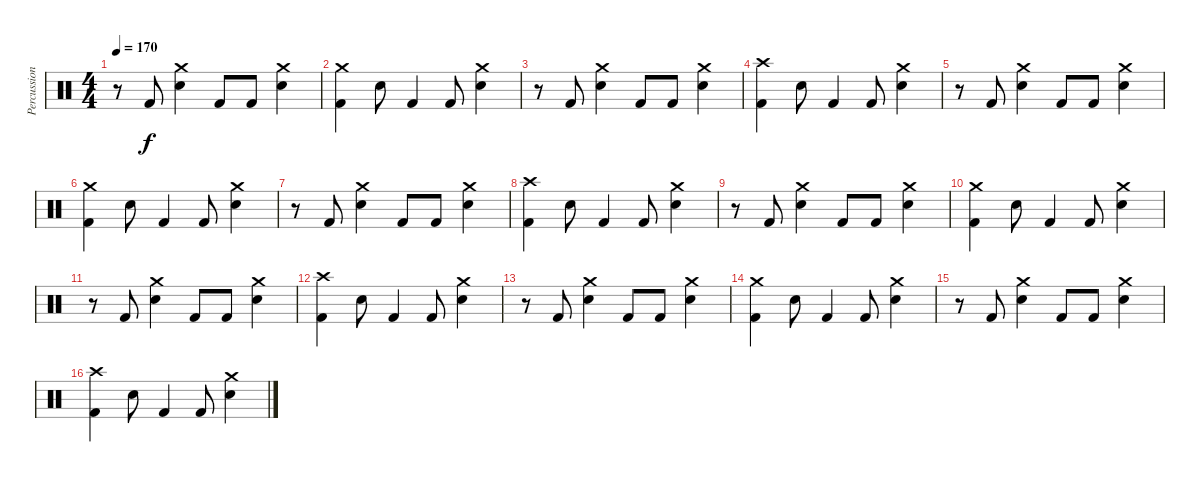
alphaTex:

\track ("Percussion" "Percussion") {instrument percussion}
\staff {score}
\articulation defaults
\ts (4 4)
\tempo 170
\clef neutral
\ks c
r.8{dy f} "Kick (hit) 2".8 ("Snare (hit) 2" "Crash medium (hit)").4 "Kick (hit) 2".8 "Kick (hit) 2".8 ("Snare (hit) 2" "Crash medium (hit)").4 |
("Crash medium (hit)" "Kick (hit) 2").4 "Snare (hit) 2".8 "Kick (hit) 2".4 "Kick (hit) 2".8 ("Snare (hit) 2" "Crash medium (hit)").4 |
r.8 "Kick (hit) 2".8 ("Snare (hit) 2" "Crash medium (hit)").4 "Kick (hit) 2".8 "Kick (hit) 2".8 ("Snare (hit) 2" "Crash medium (hit)").4 |
("Crash high (hit)" "Kick (hit) 2").4 "Snare (hit) 2".8 "Kick (hit) 2".4 "Kick (hit) 2".8 ("Snare (hit) 2" "Crash medium (hit)").4 |
r.8 "Kick (hit) 2".8 ("Snare (hit) 2" "Crash medium (hit)").4 "Kick (hit) 2".8 "Kick (hit) 2".8 ("Snare (hit) 2" "Crash medium (hit)").4 |
("Crash medium (hit)" "Kick (hit) 2").4 "Snare (hit) 2".8 "Kick (hit) 2".4 "Kick (hit) 2".8 ("Snare (hit) 2" "Crash medium (hit)").4 |
r.8 "Kick (hit) 2".8 ("Snare (hit) 2" "Crash medium (hit)").4 "Kick (hit) 2".8 "Kick (hit) 2".8 ("Snare (hit) 2" "Crash medium (hit)").4 |
("Crash high (hit)" "Kick (hit) 2").4 "Snare (hit) 2".8 "Kick (hit) 2".4 "Kick (hit) 2".8 ("Snare (hit) 2" "Crash medium (hit)").4 |
r.8 "Kick (hit) 2".8 ("Snare (hit) 2" "Crash medium (hit)").4 "Kick (hit) 2".8 "Kick (hit) 2".8 ("Snare (hit) 2" "Crash medium (hit)").4 |
("Crash medium (hit)" "Kick (hit) 2").4 "Snare (hit) 2".8 "Kick (hit) 2".4 "Kick (hit) 2".8 ("Snare (hit) 2" "Crash medium (hit)").4 |
r.8 "Kick (hit) 2".8 ("Snare (hit) 2" "Crash medium (hit)").4 "Kick (hit) 2".8 "Kick (hit) 2".8 ("Snare (hit) 2" "Crash medium (hit)").4 |
("Crash high (hit)" "Kick (hit) 2").4 "Snare (hit) 2".8 "Kick (hit) 2".4 "Kick (hit) 2".8 ("Snare (hit) 2" "Crash medium (hit)").4 |
r.8 "Kick (hit) 2".8 ("Snare (hit) 2" "Crash medium (hit)").4 "Kick (hit) 2".8 "Kick (hit) 2".8 ("Snare (hit) 2" "Crash medium (hit)").4 |
("Crash medium (hit)" "Kick (hit) 2").4 "Snare (hit) 2".8 "Kick (hit) 2".4 "Kick (hit) 2".8 ("Snare (hit) 2" "Crash medium (hit)").4 |
r.8 "Kick (hit) 2".8 ("Snare (hit) 2" "Crash medium (hit)").4 "Kick (hit) 2".8 "Kick (hit) 2".8 ("Snare (hit) 2" "Crash medium (hit)").4 |
("Crash high (hit)" "Kick (hit) 2").4 "Snare (hit) 2".8 "Kick (hit) 2".4 "Kick (hit) 2".8 ("Snare (hit) 2" "Crash medium (hit)").4
